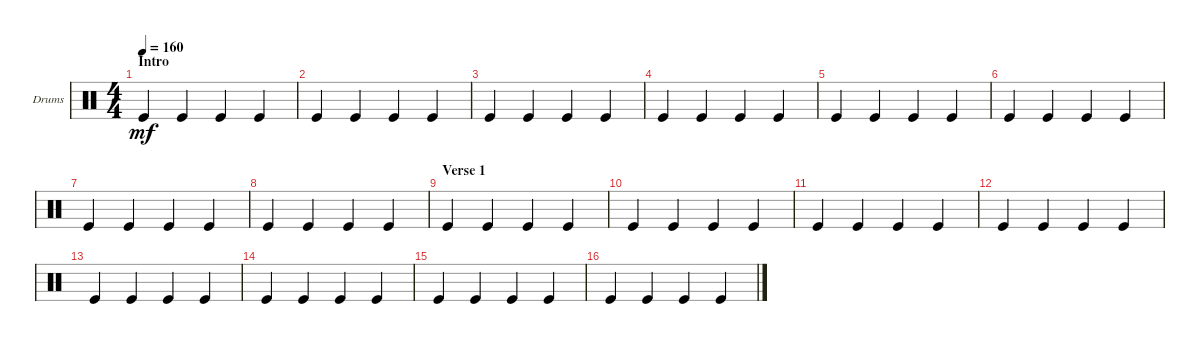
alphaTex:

\defaultSystemsLayout 4
\bracketExtendMode groupsimilarinstruments
\firstSystemTrackNameOrientation horizontal
\otherSystemsTrackNameOrientation horizontal
\track ("Drumkit" "Drums") {instrument percussion}
\staff {score}
\articulation defaults
\ts (4 4)
\section ("" "Intro")
\tempo 160
\clef neutral
\ks c "Kick (hit)".4{dy mf} "Kick (hit)".4 "Kick (hit)".4 "Kick (hit)".4
|
"Kick (hit)".4 "Kick (hit)".4 "Kick (hit)".4 "Kick (hit)".4 |
"Kick (hit)".4 "Kick (hit)".4 "Kick (hit)".4 "Kick (hit)".4 |
"Kick (hit)".4 "Kick (hit)".4 "Kick (hit)".4 "Kick (hit)".4 |
"Kick (hit)".4 "Kick (hit)".4 "Kick (hit)".4 "Kick (hit)".4 |
"Kick (hit)".4 "Kick (hit)".4 "Kick (hit)".4 "Kick (hit)".4 |
"Kick (hit)".4 "Kick (hit)".4 "Kick (hit)".4 "Kick (hit)".4 |
"Kick (hit)".4 "Kick (hit)".4 "Kick (hit)".4 "Kick (hit)".4 |
\section ("" "Verse 1")
"Kick (hit)".4 "Kick (hit)".4 "Kick (hit)".4 "Kick (hit)".4 |
"Kick (hit)".4 "Kick (hit)".4 "Kick (hit)".4 "Kick (hit)".4 |
"Kick (hit)".4 "Kick (hit)".4 "Kick (hit)".4 "Kick (hit)".4 |
"Kick (hit)".4 "Kick (hit)".4 "Kick (hit)".4 "Kick (hit)".4 |
"Kick (hit)".4 "Kick (hit)".4 "Kick (hit)".4 "Kick (hit)".4 |
"Kick (hit)".4 "Kick (hit)".4 "Kick (hit)".4 "Kick (hit)".4 |
"Kick (hit)".4 "Kick (hit)".4 "Kick (hit)".4 "Kick (hit)".4 |
"Kick (hit)".4 "Kick (hit)".4 "Kick (hit)".4 "Kick (hit)".4
